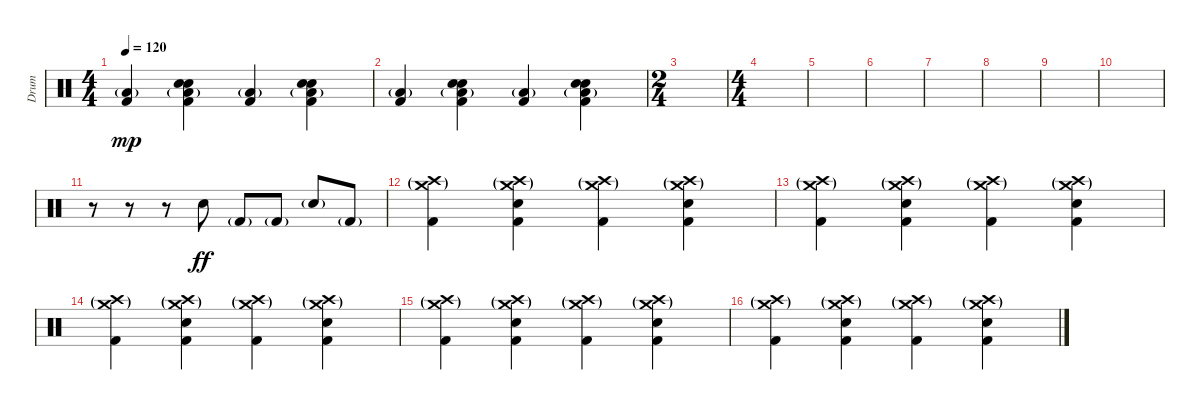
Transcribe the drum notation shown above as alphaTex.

\track ("Drum" "Drum") {instrument percussion}
\staff {score}
\articulation defaults
\ts (4 4)
\tempo 120
\clef neutral
\ks c
("Low Tom (hit)"{g} "Kick (hit) 2").4{dy mp} ("Hand Clap (hit)" "Snare (hit) 2" "Low Tom (hit)"{g} "Kick (hit) 2").4 ("Low Tom (hit)"{g} "Kick (hit) 2").4 ("Hand Clap (hit)" "Snare (hit) 2" "Low Tom (hit)"{g} "Kick (hit) 2").4 |
("Low Tom (hit)"{g} "Kick (hit) 2").4 ("Hand Clap (hit)" "Snare (hit) 2" "Low Tom (hit)"{g} "Kick (hit) 2").4 ("Low Tom (hit)"{g} "Kick (hit) 2").4 ("Hand Clap (hit)" "Snare (hit) 2" "Low Tom (hit)"{g} "Kick (hit) 2").4 |
\ts (2 4)
|
\ts (4 4)
|
|
|
|
|
|
|
r.8 r.8 r.8 "Snare (hit) 2".8{dy ff} "Kick (hit) 2"{g}.8 "Kick (hit) 2"{g}.8 "Snare (hit) 2"{g}.8 "Kick (hit) 2"{g}.8 |
("Crash medium (hit)"{g} "Crash high (hit)"{g} "Kick (hit) 2").4 ("Crash medium (hit)"{g} "Crash high (hit)"{g} "Snare (hit) 2" "Kick (hit) 2").4 ("Crash medium (hit)"{g} "Crash high (hit)"{g} "Kick (hit) 2").4 ("Crash medium (hit)"{g} "Crash high (hit)"{g} "Snare (hit) 2" "Kick (hit) 2").4 |
("Crash medium (hit)"{g} "Crash high (hit)"{g} "Kick (hit) 2").4 ("Crash medium (hit)"{g} "Crash high (hit)"{g} "Snare (hit) 2" "Kick (hit) 2").4 ("Crash medium (hit)"{g} "Crash high (hit)"{g} "Kick (hit) 2").4 ("Crash medium (hit)"{g} "Crash high (hit)"{g} "Snare (hit) 2" "Kick (hit) 2").4 |
("Crash medium (hit)"{g} "Crash high (hit)"{g} "Kick (hit) 2").4 ("Crash medium (hit)"{g} "Crash high (hit)"{g} "Snare (hit) 2" "Kick (hit) 2").4 ("Crash medium (hit)"{g} "Crash high (hit)"{g} "Kick (hit) 2").4 ("Crash medium (hit)"{g} "Crash high (hit)"{g} "Snare (hit) 2" "Kick (hit) 2").4 |
("Crash medium (hit)"{g} "Crash high (hit)"{g} "Kick (hit) 2").4 ("Crash medium (hit)"{g} "Crash high (hit)"{g} "Snare (hit) 2" "Kick (hit) 2").4 ("Crash medium (hit)"{g} "Crash high (hit)"{g} "Kick (hit) 2").4 ("Crash medium (hit)"{g} "Crash high (hit)"{g} "Snare (hit) 2" "Kick (hit) 2").4 |
("Crash medium (hit)"{g} "Crash high (hit)"{g} "Kick (hit) 2").4 ("Crash medium (hit)"{g} "Crash high (hit)"{g} "Snare (hit) 2" "Kick (hit) 2").4 ("Crash medium (hit)"{g} "Crash high (hit)"{g} "Kick (hit) 2").4 ("Crash medium (hit)"{g} "Crash high (hit)"{g} "Snare (hit) 2" "Kick (hit) 2").4
